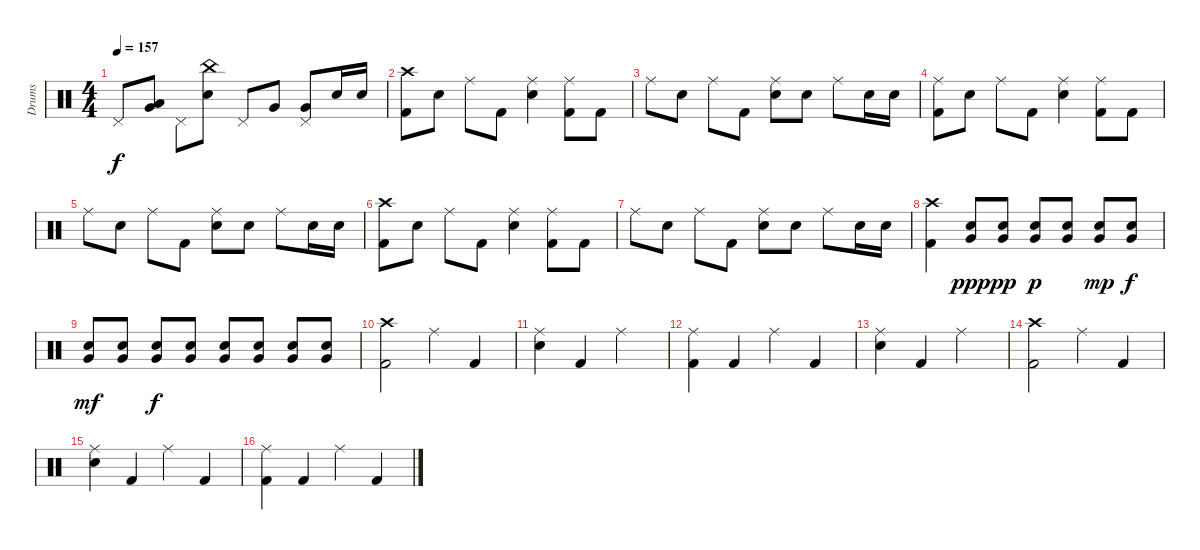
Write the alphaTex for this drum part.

\track ("Drums" "Drums") {instrument percussion}
\staff {score}
\articulation defaults
\ts (4 4)
\tempo 157
\clef neutral
\ks c "Pedal Hi-Hat (hit)".8{dy f}
("Low Tom (hit)" "Very Low Tom (hit)").8 "Pedal Hi-Hat (hit)".8 ("China (hit)" "Electric Snare (hit)").8 "Pedal Hi-Hat (hit)".8 "Very Low Tom (hit)".8 ("Pedal Hi-Hat (hit)" "Very Low Tom (hit)").8 "Electric Snare (hit)".16 "Electric Snare (hit)".16 |
("Crash high (hit)" "Kick (hit) 2").8 "Electric Snare (hit)".8 "Ride (middle)".8 "Kick (hit) 2".8 ("Ride (middle)" "Electric Snare (hit)").4 ("Ride (middle)" "Kick (hit) 2").8 "Kick (hit) 2".8 |
"Ride (middle)".8 "Electric Snare (hit)".8 "Ride (middle)".8 "Kick (hit) 2".8 ("Ride (middle)" "Electric Snare (hit)").8 "Electric Snare (hit)".8 "Ride (middle)".8 "Electric Snare (hit)".16 "Electric Snare (hit)".16 |
("Ride (middle)" "Kick (hit) 2").8 "Electric Snare (hit)".8 "Ride (middle)".8 "Kick (hit) 2".8 ("Ride (middle)" "Electric Snare (hit)").4 ("Ride (middle)" "Kick (hit) 2").8 "Kick (hit) 2".8 |
"Ride (middle)".8 "Electric Snare (hit)".8 "Ride (middle)".8 "Kick (hit) 2".8 ("Ride (middle)" "Electric Snare (hit)").8 "Electric Snare (hit)".8 "Ride (middle)".8 "Electric Snare (hit)".16 "Electric Snare (hit)".16 |
("Crash high (hit)" "Kick (hit) 2").8 "Electric Snare (hit)".8 "Ride (middle)".8 "Kick (hit) 2".8 ("Ride (middle)" "Electric Snare (hit)").4 ("Ride (middle)" "Kick (hit) 2").8 "Kick (hit) 2".8 |
"Ride (middle)".8 "Electric Snare (hit)".8 "Ride (middle)".8 "Kick (hit) 2".8 ("Ride (middle)" "Electric Snare (hit)").8 "Electric Snare (hit)".8 "Ride (middle)".8 "Electric Snare (hit)".16 "Electric Snare (hit)".16 |
("Crash high (hit)" "Kick (hit) 2").4 ("Electric Snare (hit)" "Very Low Tom (hit)").8{dy ppp} ("Electric Snare (hit)" "Very Low Tom (hit)").8{dy pp} ("Electric Snare (hit)" "Very Low Tom (hit)").8{dy p} ("Electric Snare (hit)" "Very Low Tom (hit)").8 ("Electric Snare (hit)" "Very Low Tom (hit)").8{dy mp} ("Electric Snare (hit)" "Very Low Tom (hit)").8{dy f} |
("Electric Snare (hit)" "Very Low Tom (hit)").8{dy mf} ("Electric Snare (hit)" "Very Low Tom (hit)").8 ("Electric Snare (hit)" "Very Low Tom (hit)").8{dy f} ("Electric Snare (hit)" "Very Low Tom (hit)").8 ("Electric Snare (hit)" "Very Low Tom (hit)").8 ("Electric Snare (hit)" "Very Low Tom (hit)").8 ("Electric Snare (hit)" "Very Low Tom (hit)").8 ("Electric Snare (hit)" "Very Low Tom (hit)").8 |
("Crash high (hit)" "Kick (hit) 2").2 "Ride (middle)".4 "Kick (hit) 2".4 |
("Ride (middle)" "Electric Snare (hit)").4 "Kick (hit) 2".4 "Ride (middle)".2 |
("Ride (middle)" "Kick (hit) 2").4 "Kick (hit) 2".4 "Ride (middle)".4 "Kick (hit) 2".4 |
("Ride (middle)" "Electric Snare (hit)").4 "Kick (hit) 2".4 "Ride (middle)".2 |
("Crash high (hit)" "Kick (hit) 2").2 "Ride (middle)".4 "Kick (hit) 2".4 |
("Ride (middle)" "Electric Snare (hit)").4 "Kick (hit) 2".4 "Ride (middle)".4 "Kick (hit) 2".4 |
("Ride (middle)" "Kick (hit) 2").4 "Kick (hit) 2".4 "Ride (middle)".4 "Kick (hit) 2".4
